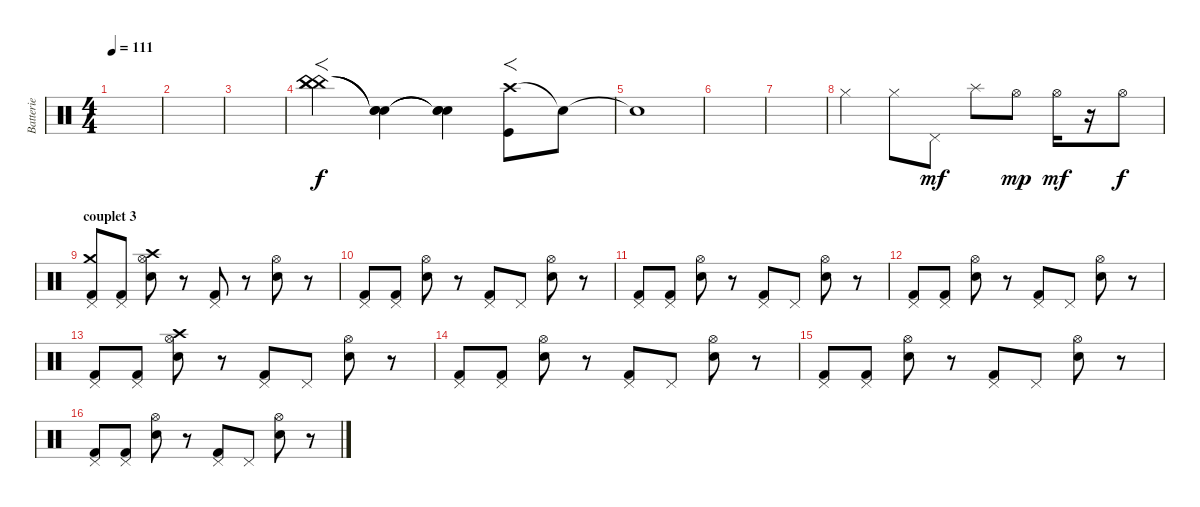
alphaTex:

\track ("Batterie" "Batterie") {instrument percussion}
\staff {score}
\articulation defaults
\ts (4 4)
\tempo 111
\clef neutral
\ks c
|
|
|
("China (hit)" "China (hit)" "China (hit)").4{f} ("Snare (hit)"{t} "Snare (hit)"{t} "Snare (hit)"{t}).4 ("Snare (hit)"{t} "Snare (hit)"{t} "Snare (hit)"{t}).4 ("Crash high (hit)" "Kick (hit)").8{f} "Snare (hit)"{t}.8 |
"Snare (hit)"{t}.1 |
|
|
"Hi-Hat (closed)".4 "Hi-Hat (closed)".8 "Pedal Hi-Hat (hit)".8{dy mf balance 8} "Splash (hit)".8 "Hi-Hat (open)".8{dy mp} "Hi-Hat (open)".16{dy mf} r.16 "Hi-Hat (open)".8{dy f} |
\section ("" "couplet 3")
("Pedal Hi-Hat (hit)" "Crash medium (hit)" "Kick (hit) 2").8 ("Pedal Hi-Hat (hit)" "Kick (hit) 2").8 ("Hi-Hat (open)" "Crash high (hit)" "Electric Snare (hit)").8 r.8 ("Pedal Hi-Hat (hit)" "Kick (hit) 2").8 r.8 ("Hi-Hat (open)" "Electric Snare (hit)").8 r.8 |
("Pedal Hi-Hat (hit)" "Kick (hit) 2").8 ("Pedal Hi-Hat (hit)" "Kick (hit) 2").8 ("Hi-Hat (open)" "Electric Snare (hit)").8 r.8 ("Pedal Hi-Hat (hit)" "Kick (hit) 2").8 "Pedal Hi-Hat (hit)".8 ("Hi-Hat (open)" "Electric Snare (hit)").8 r.8 |
("Pedal Hi-Hat (hit)" "Kick (hit) 2").8 ("Pedal Hi-Hat (hit)" "Kick (hit) 2").8 ("Hi-Hat (open)" "Electric Snare (hit)").8 r.8 ("Pedal Hi-Hat (hit)" "Kick (hit) 2").8 "Pedal Hi-Hat (hit)".8 ("Hi-Hat (open)" "Electric Snare (hit)").8 r.8 |
("Pedal Hi-Hat (hit)" "Kick (hit) 2").8 ("Pedal Hi-Hat (hit)" "Kick (hit) 2").8 ("Hi-Hat (open)" "Electric Snare (hit)").8 r.8 ("Pedal Hi-Hat (hit)" "Kick (hit) 2").8 "Pedal Hi-Hat (hit)".8 ("Hi-Hat (open)" "Electric Snare (hit)").8 r.8 |
("Pedal Hi-Hat (hit)" "Kick (hit) 2").8 ("Pedal Hi-Hat (hit)" "Kick (hit) 2").8 ("Hi-Hat (open)" "Crash high (hit)" "Electric Snare (hit)").8 r.8 ("Pedal Hi-Hat (hit)" "Kick (hit) 2").8 "Pedal Hi-Hat (hit)".8 ("Hi-Hat (open)" "Electric Snare (hit)").8 r.8 |
("Pedal Hi-Hat (hit)" "Kick (hit) 2").8 ("Pedal Hi-Hat (hit)" "Kick (hit) 2").8 ("Hi-Hat (open)" "Electric Snare (hit)").8 r.8 ("Pedal Hi-Hat (hit)" "Kick (hit) 2").8 "Pedal Hi-Hat (hit)".8 ("Hi-Hat (open)" "Electric Snare (hit)").8 r.8 |
("Pedal Hi-Hat (hit)" "Kick (hit) 2").8 ("Pedal Hi-Hat (hit)" "Kick (hit) 2").8 ("Hi-Hat (open)" "Electric Snare (hit)").8 r.8 ("Pedal Hi-Hat (hit)" "Kick (hit) 2").8 "Pedal Hi-Hat (hit)".8 ("Hi-Hat (open)" "Electric Snare (hit)").8 r.8 |
("Pedal Hi-Hat (hit)" "Kick (hit) 2").8 ("Pedal Hi-Hat (hit)" "Kick (hit) 2").8 ("Hi-Hat (open)" "Electric Snare (hit)").8 r.8 ("Pedal Hi-Hat (hit)" "Kick (hit) 2").8 "Pedal Hi-Hat (hit)".8 ("Hi-Hat (open)" "Electric Snare (hit)").8 r.8
